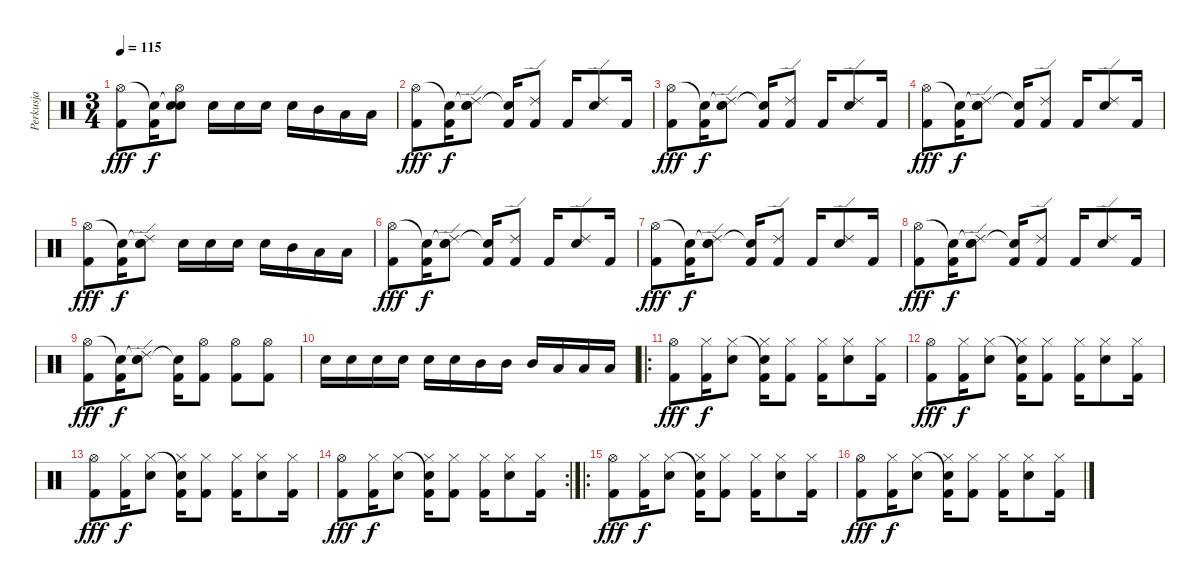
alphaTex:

\track ("Perkusja" "Perkusja") {instrument percussion}
\staff {score}
\articulation defaults
\ts (3 4)
\tempo 115
\clef neutral
\ks c
("Hi-Hat (open)" "Kick (hit) 2").8{dy fff} ("Snare (hit)"{t} "Kick (hit) 2").16{dy f} ("Snare (hit)"{t} "Hi-Hat (open)" "Snare (hit) 2").8 "Snare (hit) 2".16 "Snare (hit) 2".16 "Snare (hit) 2".16 "Snare (hit) 2".16 "Mid Tom (hit)".16 "Low Tom (hit)".16 "Low Tom (hit)".16 |
("Hi-Hat (open)" "Kick (hit) 2").8{dy fff} ("Snare (hit)"{t} "Kick (hit) 2").16{dy f} ("Snare (hit)"{t} "Ride (edge) 2" "Snare (hit) 2").8 ("Snare (hit)"{t} "Kick (hit) 2").16 ("Ride (edge) 2" "Kick (hit) 2").8 "Kick (hit) 2".16 ("Ride (edge) 2" "Snare (hit) 2").8 "Kick (hit) 2".16 |
("Hi-Hat (open)" "Kick (hit) 2").8{dy fff} ("Snare (hit)"{t} "Kick (hit) 2").16{dy f} ("Snare (hit)"{t} "Ride (edge) 2" "Snare (hit) 2").8 ("Snare (hit)"{t} "Kick (hit) 2").16 ("Ride (edge) 2" "Kick (hit) 2").8 "Kick (hit) 2".16 ("Ride (edge) 2" "Snare (hit) 2").8 "Kick (hit) 2".16 |
("Hi-Hat (open)" "Kick (hit) 2").8{dy fff} ("Snare (hit)"{t} "Kick (hit) 2").16{dy f} ("Snare (hit)"{t} "Ride (edge) 2" "Snare (hit) 2").8 ("Snare (hit)"{t} "Kick (hit) 2").16 ("Ride (edge) 2" "Kick (hit) 2").8 "Kick (hit) 2".16 ("Ride (edge) 2" "Snare (hit) 2").8 "Kick (hit) 2".16 |
("Hi-Hat (open)" "Kick (hit) 2").8{dy fff} ("Snare (hit)"{t} "Kick (hit) 2").16{dy f} ("Snare (hit)"{t} "Ride (edge) 2" "Snare (hit) 2").8 "Snare (hit) 2".16 "Snare (hit) 2".16 "Snare (hit) 2".16 "Snare (hit) 2".16 "Mid Tom (hit)".16 "Low Tom (hit)".16 "Low Tom (hit)".16 |
("Hi-Hat (open)" "Kick (hit) 2").8{dy fff} ("Snare (hit)"{t} "Kick (hit) 2").16{dy f} ("Snare (hit)"{t} "Ride (edge) 2" "Snare (hit) 2").8 ("Snare (hit)"{t} "Kick (hit) 2").16 ("Ride (edge) 2" "Kick (hit) 2").8 "Kick (hit) 2".16 ("Ride (edge) 2" "Snare (hit) 2").8 "Kick (hit) 2".16 |
("Hi-Hat (open)" "Kick (hit) 2").8{dy fff} ("Snare (hit)"{t} "Kick (hit) 2").16{dy f} ("Snare (hit)"{t} "Ride (edge) 2" "Snare (hit) 2").8 ("Snare (hit)"{t} "Kick (hit) 2").16 ("Ride (edge) 2" "Kick (hit) 2").8 "Kick (hit) 2".16 ("Ride (edge) 2" "Snare (hit) 2").8 "Kick (hit) 2".16 |
("Hi-Hat (open)" "Kick (hit) 2").8{dy fff} ("Snare (hit)"{t} "Kick (hit) 2").16{dy f} ("Snare (hit)"{t} "Ride (edge) 2" "Snare (hit) 2").8 ("Snare (hit)"{t} "Kick (hit) 2").16 ("Ride (edge) 2" "Kick (hit) 2").8 "Kick (hit) 2".16 ("Ride (edge) 2" "Snare (hit) 2").8 "Kick (hit) 2".16 |
("Hi-Hat (open)" "Kick (hit) 2").8{dy fff} ("Snare (hit)"{t} "Kick (hit) 2").16{dy f} ("Snare (hit)"{t} "Ride (edge) 2" "Snare (hit) 2").8 ("Snare (hit)"{t} "Kick (hit) 2").16 ("Hi-Hat (open)" "Kick (hit) 2").8 ("Hi-Hat (open)" "Kick (hit) 2").8 ("Hi-Hat (open)" "Kick (hit) 2").8 |
"Snare (hit) 2".16 "Snare (hit) 2".16 "Snare (hit) 2".16 "Snare (hit) 2".16 "Snare (hit) 2".16 "Snare (hit) 2".16 "Mid Tom (hit)".16 "Mid Tom (hit)".16 "Mid Tom (hit)".16 "Low Tom (hit)".16 "Low Tom (hit)".16 "Low Tom (hit)".16 |
\ro
("Hi-Hat (open)" "Kick (hit) 2").8{dy fff} ("Hi-Hat (closed)" "Kick (hit) 2").16{dy f} ("Hi-Hat (closed)" "Snare (hit) 2").8 ("Snare (hit)"{t} "Hi-Hat (closed)" "Kick (hit) 2").16 ("Hi-Hat (closed)" "Kick (hit) 2").8 ("Hi-Hat (closed)" "Kick (hit) 2").16 ("Hi-Hat (closed)" "Snare (hit) 2").8 ("Hi-Hat (closed)" "Kick (hit) 2").16 |
("Hi-Hat (open)" "Kick (hit) 2").8{dy fff} ("Hi-Hat (closed)" "Kick (hit) 2").16{dy f} ("Hi-Hat (closed)" "Snare (hit) 2").8 ("Snare (hit)"{t} "Hi-Hat (closed)" "Kick (hit) 2").16 ("Hi-Hat (closed)" "Kick (hit) 2").8 ("Hi-Hat (closed)" "Kick (hit) 2").16 ("Hi-Hat (closed)" "Snare (hit) 2").8 ("Hi-Hat (closed)" "Kick (hit) 2").16 |
("Hi-Hat (open)" "Kick (hit) 2").8{dy fff} ("Hi-Hat (closed)" "Kick (hit) 2").16{dy f} ("Hi-Hat (closed)" "Snare (hit) 2").8 ("Snare (hit)"{t} "Hi-Hat (closed)" "Kick (hit) 2").16 ("Hi-Hat (closed)" "Kick (hit) 2").8 ("Hi-Hat (closed)" "Kick (hit) 2").16 ("Hi-Hat (closed)" "Snare (hit) 2").8 ("Hi-Hat (closed)" "Kick (hit) 2").16 |
\rc 2
("Hi-Hat (open)" "Kick (hit) 2").8{dy fff} ("Hi-Hat (closed)" "Kick (hit) 2").16{dy f} ("Hi-Hat (closed)" "Snare (hit) 2").8 ("Snare (hit)"{t} "Hi-Hat (closed)" "Kick (hit) 2").16 ("Hi-Hat (closed)" "Kick (hit) 2").8 ("Hi-Hat (closed)" "Kick (hit) 2").16 ("Hi-Hat (closed)" "Snare (hit) 2").8 ("Hi-Hat (closed)" "Kick (hit) 2").16 |
\ro
("Hi-Hat (open)" "Kick (hit) 2").8{dy fff} ("Hi-Hat (closed)" "Kick (hit) 2").16{dy f} ("Hi-Hat (closed)" "Snare (hit) 2").8 ("Snare (hit)"{t} "Hi-Hat (closed)" "Kick (hit) 2").16 ("Hi-Hat (closed)" "Kick (hit) 2").8 ("Hi-Hat (closed)" "Kick (hit) 2").16 ("Hi-Hat (closed)" "Snare (hit) 2").8 ("Hi-Hat (closed)" "Kick (hit) 2").16 |
("Hi-Hat (open)" "Kick (hit) 2").8{dy fff} ("Hi-Hat (closed)" "Kick (hit) 2").16{dy f} ("Hi-Hat (closed)" "Snare (hit) 2").8 ("Snare (hit)"{t} "Hi-Hat (closed)" "Kick (hit) 2").16 ("Hi-Hat (closed)" "Kick (hit) 2").8 ("Hi-Hat (closed)" "Kick (hit) 2").16 ("Hi-Hat (closed)" "Snare (hit) 2").8 ("Hi-Hat (closed)" "Kick (hit) 2").16
